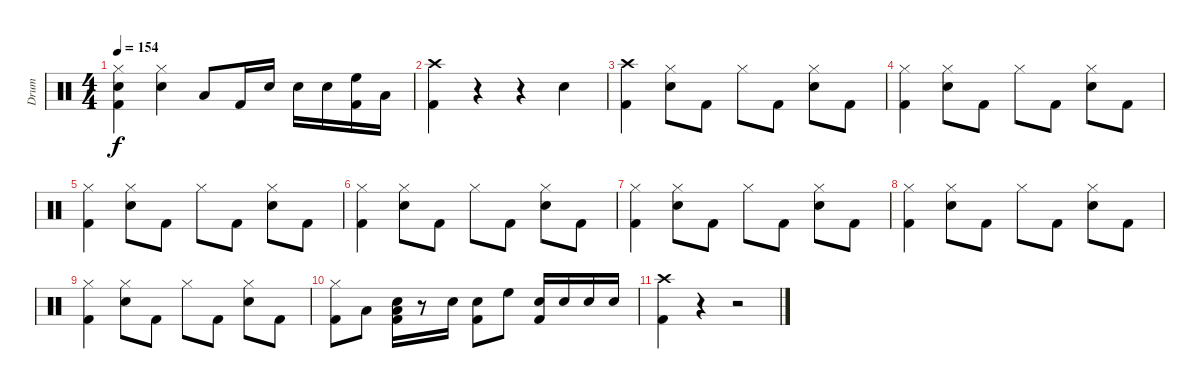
\track ("Drum" "Drum") {instrument percussion}
\staff {score}
\articulation defaults
\ts (4 4)
\tempo 154
\clef neutral
\ks c
("Hi-Hat (closed)" "Electric Snare (hit)" "Kick (hit) 2").4{dy f} ("Hi-Hat (closed)" "Electric Snare (hit)").4 "Low Tom (hit)".8 "Kick (hit) 2".16 "Electric Snare (hit)".16 "Electric Snare (hit)".16 "Electric Snare (hit)".16 ("High Floor Tom (hit)" "Kick (hit) 2").16 "Low Tom (hit)".16 |
("Crash high (hit)" "Kick (hit) 2").4 r.4 r.4 "Electric Snare (hit)".4 |
("Crash high (hit)" "Kick (hit) 2").4 ("Hi-Hat (closed)" "Electric Snare (hit)").8 "Kick (hit) 2".8 "Hi-Hat (closed)".8 "Kick (hit) 2".8 ("Hi-Hat (closed)" "Electric Snare (hit)").8 "Kick (hit) 2".8 |
("Hi-Hat (closed)" "Kick (hit) 2").4 ("Hi-Hat (closed)" "Electric Snare (hit)").8 "Kick (hit) 2".8 "Hi-Hat (closed)".8 "Kick (hit) 2".8 ("Hi-Hat (closed)" "Electric Snare (hit)").8 "Kick (hit) 2".8 |
("Hi-Hat (closed)" "Kick (hit) 2").4 ("Hi-Hat (closed)" "Electric Snare (hit)").8 "Kick (hit) 2".8 "Hi-Hat (closed)".8 "Kick (hit) 2".8 ("Hi-Hat (closed)" "Electric Snare (hit)").8 "Kick (hit) 2".8 |
("Hi-Hat (closed)" "Kick (hit) 2").4 ("Hi-Hat (closed)" "Electric Snare (hit)").8 "Kick (hit) 2".8 "Hi-Hat (closed)".8 "Kick (hit) 2".8 ("Hi-Hat (closed)" "Electric Snare (hit)").8 "Kick (hit) 2".8 |
("Hi-Hat (closed)" "Kick (hit) 2").4 ("Hi-Hat (closed)" "Electric Snare (hit)").8 "Kick (hit) 2".8 "Hi-Hat (closed)".8 "Kick (hit) 2".8 ("Hi-Hat (closed)" "Electric Snare (hit)").8 "Kick (hit) 2".8 |
("Hi-Hat (closed)" "Kick (hit) 2").4 ("Hi-Hat (closed)" "Electric Snare (hit)").8 "Kick (hit) 2".8 "Hi-Hat (closed)".8 "Kick (hit) 2".8 ("Hi-Hat (closed)" "Electric Snare (hit)").8 "Kick (hit) 2".8 |
("Hi-Hat (closed)" "Kick (hit) 2").4 ("Hi-Hat (closed)" "Electric Snare (hit)").8 "Kick (hit) 2".8 "Hi-Hat (closed)".8 "Kick (hit) 2".8 ("Hi-Hat (closed)" "Electric Snare (hit)").8 "Kick (hit) 2".8 |
("Hi-Hat (closed)" "Kick (hit) 2").8 "Low Tom (hit)".8 ("Low Tom (hit)" "Electric Snare (hit)" "Kick (hit) 2").16 r.8 "Electric Snare (hit)".16 ("Electric Snare (hit)" "Kick (hit) 2").8 "High Floor Tom (hit)".8 ("Electric Snare (hit)" "Kick (hit) 2").16 "Electric Snare (hit)".16 "Electric Snare (hit)".16 "Electric Snare (hit)".16 |
("Crash high (hit)" "Kick (hit) 2").4 r.4 r.2
